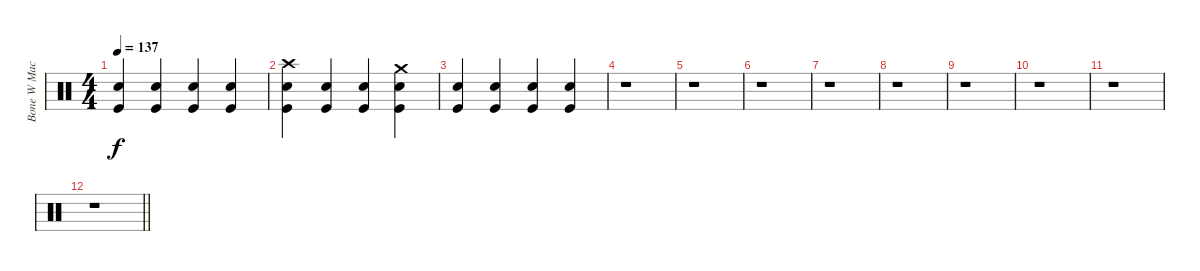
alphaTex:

\track ("Bone W Machine Drums" "Bone W Mac") {instrument percussion}
\staff {score}
\articulation defaults
\ts (4 4)
\tempo 137
\clef neutral
\ks c
("Snare (hit) 2" "Kick (hit)").4{dy f} ("Snare (hit) 2" "Kick (hit)").4 ("Snare (hit) 2" "Kick (hit)").4 ("Snare (hit) 2" "Kick (hit)").4 |
("Crash high (hit)" "Snare (hit) 2" "Kick (hit)").4 ("Snare (hit) 2" "Kick (hit)").4 ("Snare (hit) 2" "Kick (hit)").4 ("Crash medium (hit)" "Snare (hit) 2" "Kick (hit)").4 |
("Snare (hit) 2" "Kick (hit)").4 ("Snare (hit) 2" "Kick (hit)").4 ("Snare (hit) 2" "Kick (hit)").4 ("Snare (hit) 2" "Kick (hit)").4 |
r.1 |
r.1 |
r.1 |
r.1 |
r.1 |
r.1 |
r.1 |
r.1 |
\barLineRight lightlight
r.1
